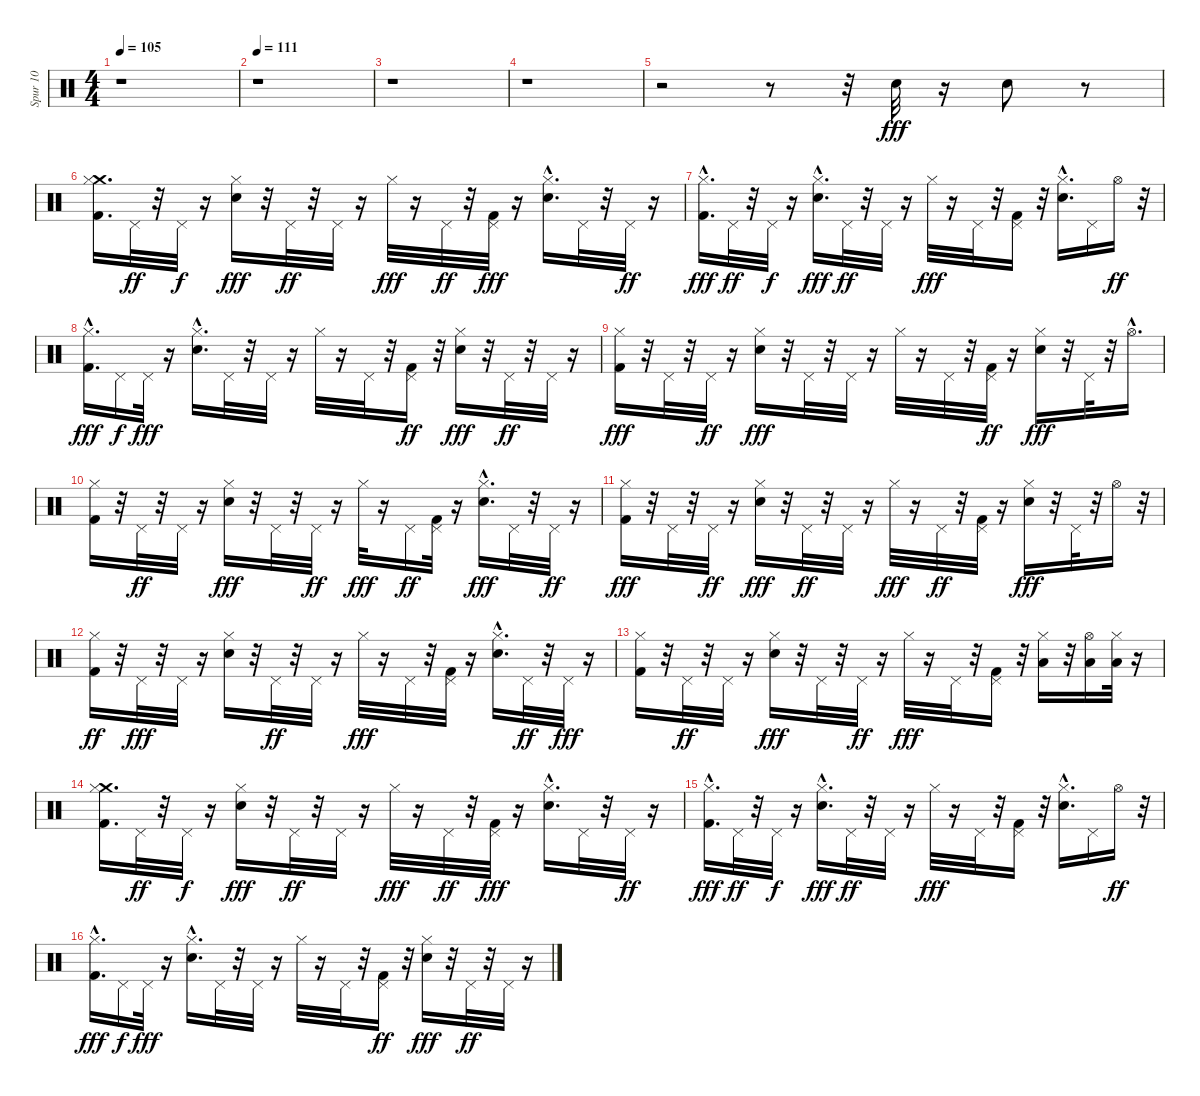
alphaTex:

\track ("Spur 10" "Spur 10") {instrument percussion}
\staff {score}
\articulation defaults
\ts (4 4)
\tempo 105
\clef neutral
\ks c
r.1{dy fff} |
\tempo 111
r.1 |
r.1 |
r.1 |
r.2 r.8 r.32 "Snare (hit) 2".32 r.16 "Snare (hit) 2".8 r.8 |
("Kick (hit) 2" "Crash medium (hit)" "Hi-Hat (closed)").16{d} "Pedal Hi-Hat (hit)".32{dy ff} r.32 "Pedal Hi-Hat (hit)".32{dy f} r.16 ("Snare (hit) 2" "Hi-Hat (closed)").16{dy fff} r.32 "Pedal Hi-Hat (hit)".32{dy ff} r.32 "Pedal Hi-Hat (hit)".32 r.16 "Hi-Hat (closed)".32{dy fff} r.16 "Pedal Hi-Hat (hit)".32{dy ff} r.32 ("Kick (hit) 2" "Pedal Hi-Hat (hit)").32{dy fff} r.16 ("Snare (hit) 2"{hac} "Hi-Hat (closed)").16{d} "Pedal Hi-Hat (hit)".32 r.32 "Pedal Hi-Hat (hit)".32{dy ff} r.16 |
("Kick (hit) 2"{hac} "Hi-Hat (closed)").16{d dy fff} "Pedal Hi-Hat (hit)".32{dy ff} r.32 "Pedal Hi-Hat (hit)".32{dy f} r.16 ("Snare (hit) 2"{hac} "Hi-Hat (closed)").16{d dy fff} "Pedal Hi-Hat (hit)".32{dy ff} r.32 "Pedal Hi-Hat (hit)".32 r.16 "Hi-Hat (closed)".32{dy fff} r.16 "Pedal Hi-Hat (hit)".32 r.32 ("Kick (hit) 2" "Pedal Hi-Hat (hit)").16 r.32 ("Snare (hit) 2"{hac} "Hi-Hat (closed)").16{d} "Pedal Hi-Hat (hit)".16 "Hi-Hat (open)".16{dy ff} r.32 |
("Kick (hit) 2"{hac} "Hi-Hat (closed)").16{d dy fff} "Pedal Hi-Hat (hit)".16{dy f} "Pedal Hi-Hat (hit)".32{dy fff} r.16 ("Snare (hit) 2"{hac} "Hi-Hat (closed)").16{d} "Pedal Hi-Hat (hit)".32 r.32 "Pedal Hi-Hat (hit)".32 r.16 "Hi-Hat (closed)".32 r.16 "Pedal Hi-Hat (hit)".32 r.32 ("Kick (hit) 2" "Pedal Hi-Hat (hit)").16{dy ff} r.32 ("Snare (hit) 2" "Hi-Hat (closed)").16{dy fff} r.32 "Pedal Hi-Hat (hit)".32{dy ff} r.32 "Pedal Hi-Hat (hit)".32 r.16 |
("Kick (hit) 2" "Hi-Hat (closed)").16{dy fff} r.32 "Pedal Hi-Hat (hit)".32 r.32 "Pedal Hi-Hat (hit)".32{dy ff} r.16 ("Snare (hit) 2" "Hi-Hat (closed)").16{dy fff} r.32 "Pedal Hi-Hat (hit)".32 r.32 "Pedal Hi-Hat (hit)".32 r.16 "Hi-Hat (closed)".32 r.16 "Pedal Hi-Hat (hit)".32 r.32 ("Kick (hit) 2" "Pedal Hi-Hat (hit)").32{dy ff} r.16 ("Snare (hit) 2" "Hi-Hat (closed)").16{dy fff} r.32 "Pedal Hi-Hat (hit)".32 r.32 "Hi-Hat (open)"{hac}.16{d} |
("Kick (hit) 2" "Hi-Hat (closed)").16 r.32 "Pedal Hi-Hat (hit)".32{dy ff} r.32 "Pedal Hi-Hat (hit)".32 r.16 ("Snare (hit) 2" "Hi-Hat (closed)").16{dy fff} r.32 "Pedal Hi-Hat (hit)".32 r.32 "Pedal Hi-Hat (hit)".32{dy ff} r.16 "Hi-Hat (closed)".32{dy fff} r.16 "Pedal Hi-Hat (hit)".16{dy ff} ("Kick (hit) 2" "Pedal Hi-Hat (hit)").32 r.16 ("Snare (hit) 2"{hac} "Hi-Hat (closed)").16{d dy fff} "Pedal Hi-Hat (hit)".32 r.32 "Pedal Hi-Hat (hit)".32{dy ff} r.16 |
("Kick (hit) 2" "Hi-Hat (closed)").16{dy fff} r.32 "Pedal Hi-Hat (hit)".32 r.32 "Pedal Hi-Hat (hit)".32{dy ff} r.16 ("Snare (hit) 2" "Hi-Hat (closed)").16{dy fff} r.32 "Pedal Hi-Hat (hit)".32{dy ff} r.32 "Pedal Hi-Hat (hit)".32 r.16 "Hi-Hat (closed)".32{dy fff} r.16 "Pedal Hi-Hat (hit)".32{dy ff} r.32 ("Kick (hit) 2" "Pedal Hi-Hat (hit)").32 r.16 ("Snare (hit) 2" "Hi-Hat (closed)").16{dy fff} r.32 "Pedal Hi-Hat (hit)".32 r.32 "Hi-Hat (open)".16 r.32 |
("Kick (hit) 2" "Hi-Hat (closed)").16{dy ff} r.32 "Pedal Hi-Hat (hit)".32{dy fff} r.32 "Pedal Hi-Hat (hit)".32 r.16 ("Snare (hit) 2" "Hi-Hat (closed)").16 r.32 "Pedal Hi-Hat (hit)".32{dy ff} r.32 "Pedal Hi-Hat (hit)".32 r.16 "Hi-Hat (closed)".32{dy fff} r.16 "Pedal Hi-Hat (hit)".32 r.32 ("Kick (hit) 2" "Pedal Hi-Hat (hit)").32 r.16 ("Snare (hit) 2"{hac} "Hi-Hat (closed)").16{d} "Pedal Hi-Hat (hit)".32{dy ff} r.32 "Pedal Hi-Hat (hit)".32{dy fff} r.16 |
("Kick (hit) 2" "Hi-Hat (closed)").16 r.32 "Pedal Hi-Hat (hit)".32{dy ff} r.32 "Pedal Hi-Hat (hit)".32 r.16 ("Snare (hit) 2" "Hi-Hat (closed)").16{dy fff} r.32 "Pedal Hi-Hat (hit)".32 r.32 "Pedal Hi-Hat (hit)".32{dy ff} r.16 "Hi-Hat (closed)".32{dy fff} r.16 "Pedal Hi-Hat (hit)".32 r.32 ("Kick (hit) 2" "Pedal Hi-Hat (hit)").16 r.32 ("Low Tom (hit)" "Hi-Hat (closed)").16 r.32 ("Low Tom (hit)" "Hi-Hat (open)").16 ("Low Floor Tom (hit)" "Hi-Hat (closed)").32 r.16 |
("Kick (hit) 2" "Crash medium (hit)" "Hi-Hat (closed)").16{d} "Pedal Hi-Hat (hit)".32{dy ff} r.32 "Pedal Hi-Hat (hit)".32{dy f} r.16 ("Snare (hit) 2" "Hi-Hat (closed)").16{dy fff} r.32 "Pedal Hi-Hat (hit)".32{dy ff} r.32 "Pedal Hi-Hat (hit)".32 r.16 "Hi-Hat (closed)".32{dy fff} r.16 "Pedal Hi-Hat (hit)".32{dy ff} r.32 ("Kick (hit) 2" "Pedal Hi-Hat (hit)").32{dy fff} r.16 ("Snare (hit) 2"{hac} "Hi-Hat (closed)").16{d} "Pedal Hi-Hat (hit)".32 r.32 "Pedal Hi-Hat (hit)".32{dy ff} r.16 |
("Kick (hit) 2"{hac} "Hi-Hat (closed)").16{d dy fff} "Pedal Hi-Hat (hit)".32{dy ff} r.32 "Pedal Hi-Hat (hit)".32{dy f} r.16 ("Snare (hit) 2"{hac} "Hi-Hat (closed)").16{d dy fff} "Pedal Hi-Hat (hit)".32{dy ff} r.32 "Pedal Hi-Hat (hit)".32 r.16 "Hi-Hat (closed)".32{dy fff} r.16 "Pedal Hi-Hat (hit)".32 r.32 ("Kick (hit) 2" "Pedal Hi-Hat (hit)").16 r.32 ("Snare (hit) 2"{hac} "Hi-Hat (closed)").16{d} "Pedal Hi-Hat (hit)".16 "Hi-Hat (open)".16{dy ff} r.32 |
("Kick (hit) 2"{hac} "Hi-Hat (closed)").16{d dy fff} "Pedal Hi-Hat (hit)".16{dy f} "Pedal Hi-Hat (hit)".32{dy fff} r.16 ("Snare (hit) 2"{hac} "Hi-Hat (closed)").16{d} "Pedal Hi-Hat (hit)".32 r.32 "Pedal Hi-Hat (hit)".32 r.16 "Hi-Hat (closed)".32 r.16 "Pedal Hi-Hat (hit)".32 r.32 ("Kick (hit) 2" "Pedal Hi-Hat (hit)").16{dy ff} r.32 ("Snare (hit) 2" "Hi-Hat (closed)").16{dy fff} r.32 "Pedal Hi-Hat (hit)".32{dy ff} r.32 "Pedal Hi-Hat (hit)".32 r.16
